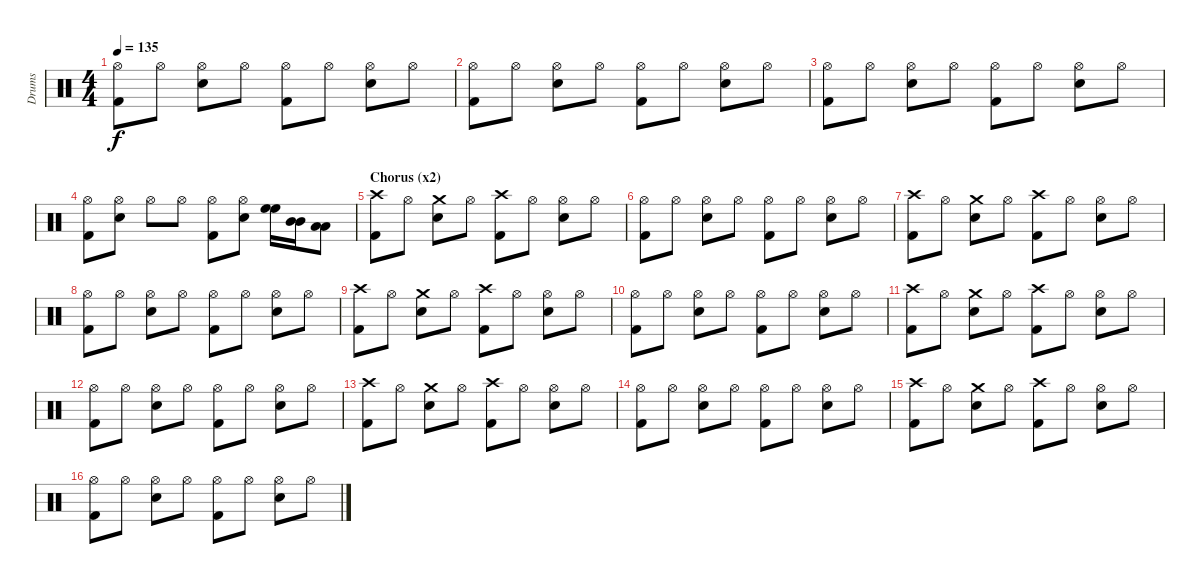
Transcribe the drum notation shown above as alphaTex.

\track ("Drums" "Drums") {instrument percussion}
\staff {score}
\articulation defaults
\ts (4 4)
\tempo 135
\clef neutral
\ks c
("Hi-Hat (open)" "Kick (hit) 2").8{dy f} "Hi-Hat (open)".8 ("Hi-Hat (open)" "Snare (hit) 2").8 "Hi-Hat (open)".8 ("Hi-Hat (open)" "Kick (hit) 2").8 "Hi-Hat (open)".8 ("Hi-Hat (open)" "Snare (hit) 2").8 "Hi-Hat (open)".8 |
("Hi-Hat (open)" "Kick (hit) 2").8 "Hi-Hat (open)".8 ("Hi-Hat (open)" "Snare (hit) 2").8 "Hi-Hat (open)".8 ("Hi-Hat (open)" "Kick (hit) 2").8 "Hi-Hat (open)".8 ("Hi-Hat (open)" "Snare (hit) 2").8 "Hi-Hat (open)".8 |
("Hi-Hat (open)" "Kick (hit) 2").8 "Hi-Hat (open)".8 ("Hi-Hat (open)" "Snare (hit) 2").8 "Hi-Hat (open)".8 ("Hi-Hat (open)" "Kick (hit) 2").8 "Hi-Hat (open)".8 ("Hi-Hat (open)" "Snare (hit) 2").8 "Hi-Hat (open)".8 |
("Hi-Hat (open)" "Kick (hit) 2").8 ("Hi-Hat (open)" "Snare (hit) 2").8 "Hi-Hat (open)".8 "Hi-Hat (open)".8 ("Hi-Hat (open)" "Kick (hit) 2").8 ("Hi-Hat (open)" "Snare (hit) 2").8 ("High Floor Tom (hit)" "High Floor Tom (hit)").16 ("Mid Tom (hit)" "Mid Tom (hit)").16 ("Low Tom (hit)" "Low Tom (hit)").8 |
\section ("" "Chorus (x2)")
("Crash high (hit)" "Kick (hit) 2").8 "Hi-Hat (open)".8 ("Crash medium (hit)" "Snare (hit) 2").8 "Hi-Hat (open)".8 ("Crash high (hit)" "Kick (hit) 2").8 "Hi-Hat (open)".8 ("Hi-Hat (open)" "Snare (hit) 2").8 "Hi-Hat (open)".8 |
("Hi-Hat (open)" "Kick (hit) 2").8 "Hi-Hat (open)".8 ("Hi-Hat (open)" "Snare (hit) 2").8 "Hi-Hat (open)".8 ("Hi-Hat (open)" "Kick (hit) 2").8 "Hi-Hat (open)".8 ("Hi-Hat (open)" "Snare (hit) 2").8 "Hi-Hat (open)".8 |
("Crash high (hit)" "Kick (hit) 2").8 "Hi-Hat (open)".8 ("Crash medium (hit)" "Snare (hit) 2").8 "Hi-Hat (open)".8 ("Crash high (hit)" "Kick (hit) 2").8 "Hi-Hat (open)".8 ("Hi-Hat (open)" "Snare (hit) 2").8 "Hi-Hat (open)".8 |
("Hi-Hat (open)" "Kick (hit) 2").8 "Hi-Hat (open)".8 ("Hi-Hat (open)" "Snare (hit) 2").8 "Hi-Hat (open)".8 ("Hi-Hat (open)" "Kick (hit) 2").8 "Hi-Hat (open)".8 ("Hi-Hat (open)" "Snare (hit) 2").8 "Hi-Hat (open)".8 |
("Crash high (hit)" "Kick (hit) 2").8 "Hi-Hat (open)".8 ("Crash medium (hit)" "Snare (hit) 2").8 "Hi-Hat (open)".8 ("Crash high (hit)" "Kick (hit) 2").8 "Hi-Hat (open)".8 ("Hi-Hat (open)" "Snare (hit) 2").8 "Hi-Hat (open)".8 |
("Hi-Hat (open)" "Kick (hit) 2").8 "Hi-Hat (open)".8 ("Hi-Hat (open)" "Snare (hit) 2").8 "Hi-Hat (open)".8 ("Hi-Hat (open)" "Kick (hit) 2").8 "Hi-Hat (open)".8 ("Hi-Hat (open)" "Snare (hit) 2").8 "Hi-Hat (open)".8 |
("Crash high (hit)" "Kick (hit) 2").8 "Hi-Hat (open)".8 ("Crash medium (hit)" "Snare (hit) 2").8 "Hi-Hat (open)".8 ("Crash high (hit)" "Kick (hit) 2").8 "Hi-Hat (open)".8 ("Hi-Hat (open)" "Snare (hit) 2").8 "Hi-Hat (open)".8 |
("Hi-Hat (open)" "Kick (hit) 2").8 "Hi-Hat (open)".8 ("Hi-Hat (open)" "Snare (hit) 2").8 "Hi-Hat (open)".8 ("Hi-Hat (open)" "Kick (hit) 2").8 "Hi-Hat (open)".8 ("Hi-Hat (open)" "Snare (hit) 2").8 "Hi-Hat (open)".8 |
("Crash high (hit)" "Kick (hit) 2").8 "Hi-Hat (open)".8 ("Crash medium (hit)" "Snare (hit) 2").8 "Hi-Hat (open)".8 ("Crash high (hit)" "Kick (hit) 2").8 "Hi-Hat (open)".8 ("Hi-Hat (open)" "Snare (hit) 2").8 "Hi-Hat (open)".8 |
("Hi-Hat (open)" "Kick (hit) 2").8 "Hi-Hat (open)".8 ("Hi-Hat (open)" "Snare (hit) 2").8 "Hi-Hat (open)".8 ("Hi-Hat (open)" "Kick (hit) 2").8 "Hi-Hat (open)".8 ("Hi-Hat (open)" "Snare (hit) 2").8 "Hi-Hat (open)".8 |
("Crash high (hit)" "Kick (hit) 2").8 "Hi-Hat (open)".8 ("Crash medium (hit)" "Snare (hit) 2").8 "Hi-Hat (open)".8 ("Crash high (hit)" "Kick (hit) 2").8 "Hi-Hat (open)".8 ("Hi-Hat (open)" "Snare (hit) 2").8 "Hi-Hat (open)".8 |
("Hi-Hat (open)" "Kick (hit) 2").8 "Hi-Hat (open)".8 ("Hi-Hat (open)" "Snare (hit) 2").8 "Hi-Hat (open)".8 ("Hi-Hat (open)" "Kick (hit) 2").8 "Hi-Hat (open)".8 ("Hi-Hat (open)" "Snare (hit) 2").8 "Hi-Hat (open)".8
